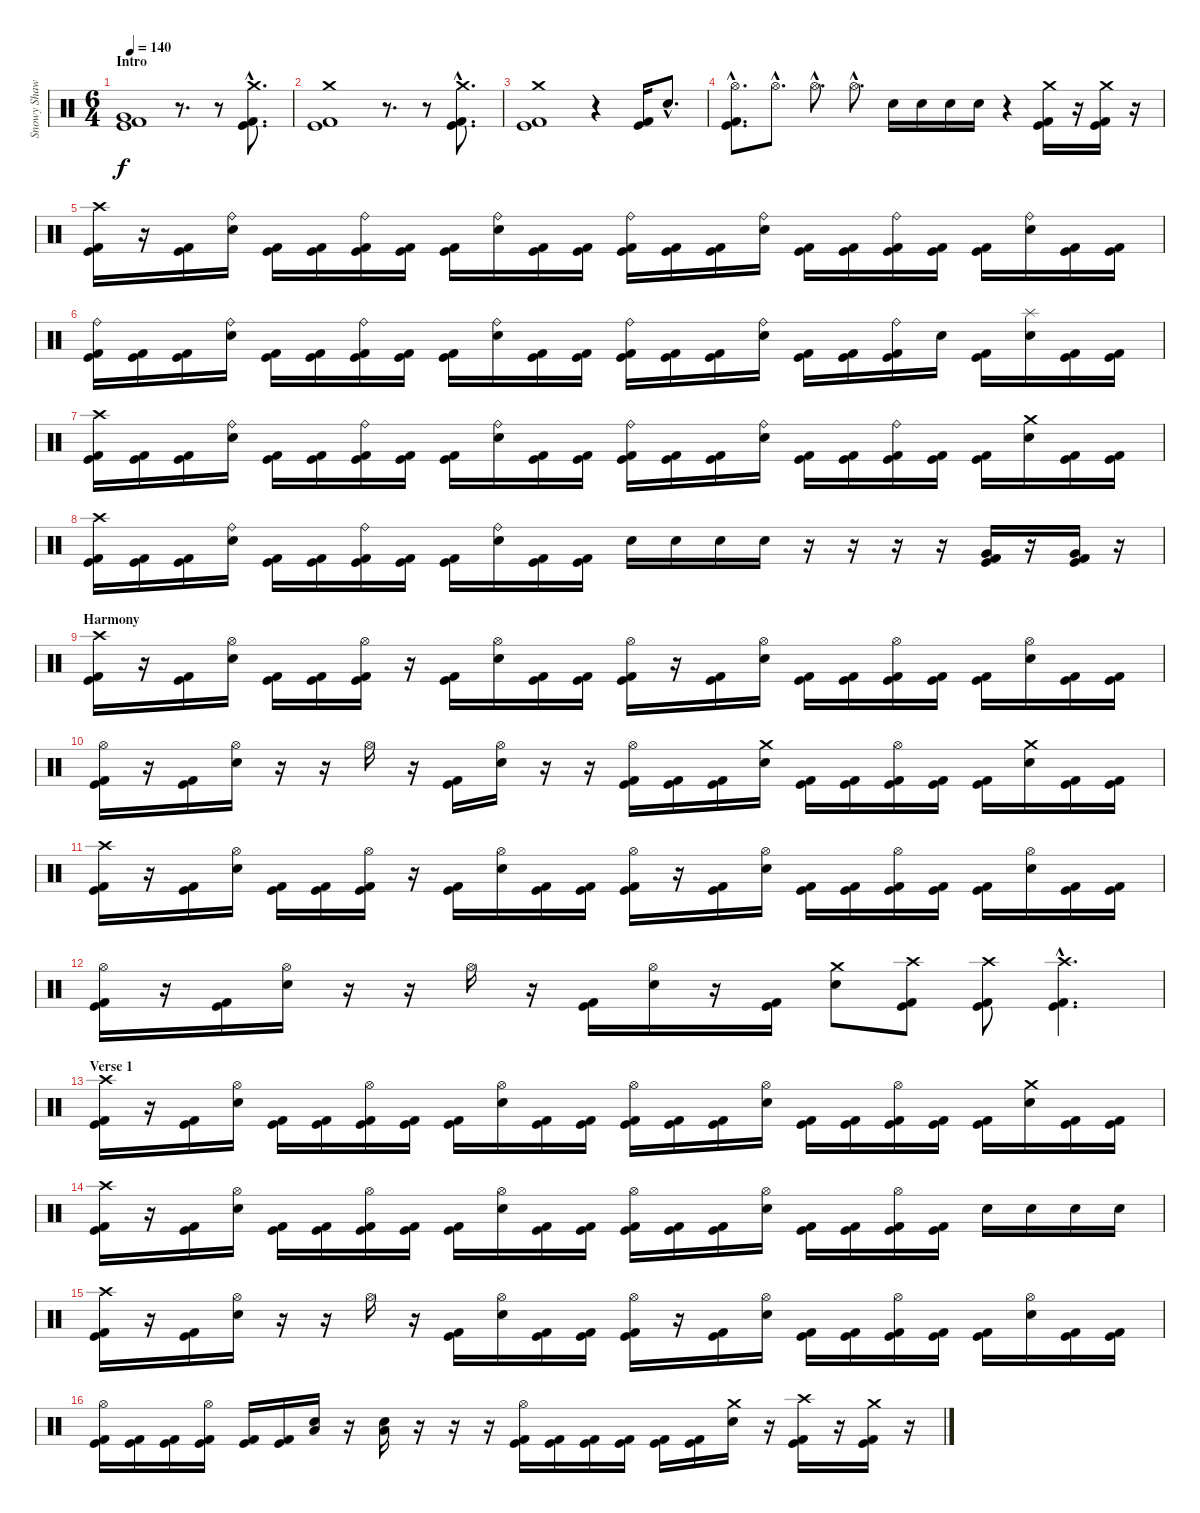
\track ("Snowy Shaw" "Snowy Shaw") {instrument percussion}
\staff {score}
\articulation defaults
\ts (6 4)
\section ("" "Intro")
\tempo 140
\clef neutral
\ks c
("Very Low Tom (hit)" "Kick (hit) 2" "Kick (hit)").1{dy f} r.8{d} r.8 ("Crash medium (hit)"{hac} "Kick (hit) 2"{hac} "Kick (hit)"{hac}).8{d} |
("Crash medium (hit)" "Kick (hit) 2" "Kick (hit)").1 r.8{d} r.8 ("Crash medium (hit)"{hac} "Kick (hit) 2"{hac} "Kick (hit)"{hac}).8{d} |
("Crash medium (hit)" "Kick (hit) 2" "Kick (hit)").1 r.4 ("Kick (hit) 2" "Kick (hit)").16 "Electric Snare (hit)"{hac}.8{d} |
("Hi-Hat (open)"{hac} "Kick (hit) 2"{hac} "Kick (hit)"{hac}).8{d} "Hi-Hat (open)"{hac}.8{d} "Hi-Hat (open)"{hac}.8{d} "Hi-Hat (open)"{hac}.8{d} "Electric Snare (hit)".16 "Electric Snare (hit)".16 "Electric Snare (hit)".16 "Electric Snare (hit)".16 r.4 ("Crash medium (hit)" "Kick (hit)" "Kick (hit) 2").16 r.16 ("Crash medium (hit)" "Kick (hit)" "Kick (hit) 2").16 r.16 |
("Crash high (hit)" "Kick (hit) 2" "Kick (hit)").16 r.16 ("Kick (hit) 2" "Kick (hit)").16 ("Ride (bell)" "Electric Snare (hit)").16 ("Kick (hit)" "Kick (hit) 2").16 ("Kick (hit)" "Kick (hit) 2").16 ("Ride (bell)" "Kick (hit)" "Kick (hit) 2").16 ("Kick (hit)" "Kick (hit) 2").16 ("Kick (hit)" "Kick (hit) 2").16 ("Ride (bell)" "Electric Snare (hit)").16 ("Kick (hit)" "Kick (hit) 2").16 ("Kick (hit)" "Kick (hit) 2").16 ("Ride (bell)" "Kick (hit)" "Kick (hit) 2").16 ("Kick (hit)" "Kick (hit) 2").16 ("Kick (hit)" "Kick (hit) 2").16 ("Ride (bell)" "Electric Snare (hit)").16 ("Kick (hit)" "Kick (hit) 2").16 ("Kick (hit)" "Kick (hit) 2").16 ("Ride (bell)" "Kick (hit)" "Kick (hit) 2").16 ("Kick (hit)" "Kick (hit) 2").16 ("Kick (hit)" "Kick (hit) 2").16 ("Ride (bell)" "Electric Snare (hit)").16 ("Kick (hit)" "Kick (hit) 2").16 ("Kick (hit)" "Kick (hit) 2").16 |
("Ride (bell)" "Kick (hit) 2" "Kick (hit)").16 ("Kick (hit) 2" "Kick (hit)").16 ("Kick (hit) 2" "Kick (hit)").16 ("Ride (bell)" "Electric Snare (hit)").16 ("Kick (hit)" "Kick (hit) 2").16 ("Kick (hit)" "Kick (hit) 2").16 ("Ride (bell)" "Kick (hit)" "Kick (hit) 2").16 ("Kick (hit)" "Kick (hit) 2").16 ("Kick (hit)" "Kick (hit) 2").16 ("Ride (bell)" "Electric Snare (hit)").16 ("Kick (hit)" "Kick (hit) 2").16 ("Kick (hit)" "Kick (hit) 2").16 ("Ride (bell)" "Kick (hit)" "Kick (hit) 2").16 ("Kick (hit)" "Kick (hit) 2").16 ("Kick (hit)" "Kick (hit) 2").16 ("Ride (bell)" "Electric Snare (hit)").16 ("Kick (hit)" "Kick (hit) 2").16 ("Kick (hit)" "Kick (hit) 2").16 ("Ride (bell)" "Kick (hit)" "Kick (hit) 2").16 "Electric Snare (hit)".16 ("Kick (hit)" "Kick (hit) 2").16 ("Splash (hit)" "Electric Snare (hit)").16 ("Kick (hit)" "Kick (hit) 2").16 ("Kick (hit)" "Kick (hit) 2").16 |
("Crash high (hit)" "Kick (hit) 2" "Kick (hit)").16 ("Kick (hit) 2" "Kick (hit)").16 ("Kick (hit) 2" "Kick (hit)").16 ("Ride (bell)" "Electric Snare (hit)").16 ("Kick (hit)" "Kick (hit) 2").16 ("Kick (hit)" "Kick (hit) 2").16 ("Ride (bell)" "Kick (hit)" "Kick (hit) 2").16 ("Kick (hit)" "Kick (hit) 2").16 ("Kick (hit)" "Kick (hit) 2").16 ("Ride (bell)" "Electric Snare (hit)").16 ("Kick (hit)" "Kick (hit) 2").16 ("Kick (hit)" "Kick (hit) 2").16 ("Ride (bell)" "Kick (hit)" "Kick (hit) 2").16 ("Kick (hit)" "Kick (hit) 2").16 ("Kick (hit)" "Kick (hit) 2").16 ("Ride (bell)" "Electric Snare (hit)").16 ("Kick (hit)" "Kick (hit) 2").16 ("Kick (hit)" "Kick (hit) 2").16 ("Ride (bell)" "Kick (hit)" "Kick (hit) 2").16 ("Kick (hit)" "Kick (hit) 2").16 ("Kick (hit)" "Kick (hit) 2").16 ("Crash medium (hit)" "Electric Snare (hit)").16 ("Kick (hit)" "Kick (hit) 2").16 ("Kick (hit)" "Kick (hit) 2").16 |
("Crash high (hit)" "Kick (hit) 2" "Kick (hit)").16 ("Kick (hit) 2" "Kick (hit)").16 ("Kick (hit) 2" "Kick (hit)").16 ("Ride (bell)" "Electric Snare (hit)").16 ("Kick (hit)" "Kick (hit) 2").16 ("Kick (hit)" "Kick (hit) 2").16 ("Ride (bell)" "Kick (hit)" "Kick (hit) 2").16 ("Kick (hit)" "Kick (hit) 2").16 ("Kick (hit)" "Kick (hit) 2").16 ("Ride (bell)" "Electric Snare (hit)").16 ("Kick (hit)" "Kick (hit) 2").16 ("Kick (hit)" "Kick (hit) 2").16 "Electric Snare (hit)".16 "Electric Snare (hit)".16 "Electric Snare (hit)".16 "Electric Snare (hit)".16 r.16 r.16 r.16 r.16 ("Very Low Tom (hit)" "Kick (hit)" "Kick (hit) 2").16 r.16 ("Very Low Tom (hit)" "Kick (hit)" "Kick (hit) 2").16 r.16 |
\section ("" "Harmony")
("Crash high (hit)" "Kick (hit) 2" "Kick (hit)").16 r.16 ("Kick (hit) 2" "Kick (hit)").16 ("Hi-Hat (open)" "Electric Snare (hit)").16 ("Kick (hit)" "Kick (hit) 2").16 ("Kick (hit)" "Kick (hit) 2").16 ("Hi-Hat (open)" "Kick (hit)" "Kick (hit) 2").16 r.16 ("Kick (hit)" "Kick (hit) 2").16 ("Hi-Hat (open)" "Electric Snare (hit)").16 ("Kick (hit)" "Kick (hit) 2").16 ("Kick (hit)" "Kick (hit) 2").16 ("Hi-Hat (open)" "Kick (hit)" "Kick (hit) 2").16 r.16 ("Kick (hit)" "Kick (hit) 2").16 ("Hi-Hat (open)" "Electric Snare (hit)").16 ("Kick (hit)" "Kick (hit) 2").16 ("Kick (hit)" "Kick (hit) 2").16 ("Hi-Hat (open)" "Kick (hit)" "Kick (hit) 2").16 ("Kick (hit)" "Kick (hit) 2").16 ("Kick (hit)" "Kick (hit) 2").16 ("Hi-Hat (open)" "Electric Snare (hit)").16 ("Kick (hit)" "Kick (hit) 2").16 ("Kick (hit)" "Kick (hit) 2").16 |
("Hi-Hat (open)" "Kick (hit) 2" "Kick (hit)").16 r.16 ("Kick (hit) 2" "Kick (hit)").16 ("Hi-Hat (open)" "Electric Snare (hit)").16 r.16 r.16 "Hi-Hat (open)".16 r.16 ("Kick (hit)" "Kick (hit) 2").16 ("Hi-Hat (open)" "Electric Snare (hit)").16 r.16 r.16 ("Hi-Hat (open)" "Kick (hit)" "Kick (hit) 2").16 ("Kick (hit) 2" "Kick (hit)").16 ("Kick (hit)" "Kick (hit) 2").16 ("Crash medium (hit)" "Electric Snare (hit)").16 ("Kick (hit)" "Kick (hit) 2").16 ("Kick (hit)" "Kick (hit) 2").16 ("Hi-Hat (open)" "Kick (hit)" "Kick (hit) 2").16 ("Kick (hit)" "Kick (hit) 2").16 ("Kick (hit)" "Kick (hit) 2").16 ("Crash medium (hit)" "Electric Snare (hit)").16 ("Kick (hit)" "Kick (hit) 2").16 ("Kick (hit)" "Kick (hit) 2").16 |
("Crash high (hit)" "Kick (hit) 2" "Kick (hit)").16 r.16 ("Kick (hit) 2" "Kick (hit)").16 ("Hi-Hat (open)" "Electric Snare (hit)").16 ("Kick (hit)" "Kick (hit) 2").16 ("Kick (hit)" "Kick (hit) 2").16 ("Hi-Hat (open)" "Kick (hit)" "Kick (hit) 2").16 r.16 ("Kick (hit)" "Kick (hit) 2").16 ("Hi-Hat (open)" "Electric Snare (hit)").16 ("Kick (hit)" "Kick (hit) 2").16 ("Kick (hit)" "Kick (hit) 2").16 ("Hi-Hat (open)" "Kick (hit)" "Kick (hit) 2").16 r.16 ("Kick (hit)" "Kick (hit) 2").16 ("Hi-Hat (open)" "Electric Snare (hit)").16 ("Kick (hit)" "Kick (hit) 2").16 ("Kick (hit)" "Kick (hit) 2").16 ("Hi-Hat (open)" "Kick (hit)" "Kick (hit) 2").16 ("Kick (hit)" "Kick (hit) 2").16 ("Kick (hit)" "Kick (hit) 2").16 ("Hi-Hat (open)" "Electric Snare (hit)").16 ("Kick (hit)" "Kick (hit) 2").16 ("Kick (hit)" "Kick (hit) 2").16 |
("Hi-Hat (open)" "Kick (hit) 2" "Kick (hit)").16 r.16 ("Kick (hit) 2" "Kick (hit)").16 ("Hi-Hat (open)" "Electric Snare (hit)").16 r.16 r.16 "Hi-Hat (open)".16 r.16 ("Kick (hit)" "Kick (hit) 2").16 ("Hi-Hat (open)" "Electric Snare (hit)").16 r.16 ("Kick (hit) 2" "Kick (hit)").16 ("Crash medium (hit)" "Electric Snare (hit)").8 ("Crash high (hit)" "Kick (hit) 2" "Kick (hit)").8 ("Crash high (hit)" "Kick (hit)" "Kick (hit) 2").8 ("Crash high (hit)"{hac} "Kick (hit)"{hac} "Kick (hit) 2"{hac}).4{d} |
\section ("" "Verse 1")
("Crash high (hit)" "Kick (hit) 2" "Kick (hit)").16 r.16 ("Kick (hit) 2" "Kick (hit)").16 ("Hi-Hat (open)" "Electric Snare (hit)").16 ("Kick (hit)" "Kick (hit) 2").16 ("Kick (hit)" "Kick (hit) 2").16 ("Hi-Hat (open)" "Kick (hit)" "Kick (hit) 2").16 ("Kick (hit) 2" "Kick (hit)").16 ("Kick (hit)" "Kick (hit) 2").16 ("Hi-Hat (open)" "Electric Snare (hit)").16 ("Kick (hit)" "Kick (hit) 2").16 ("Kick (hit)" "Kick (hit) 2").16 ("Hi-Hat (open)" "Kick (hit)" "Kick (hit) 2").16 ("Kick (hit) 2" "Kick (hit)").16 ("Kick (hit)" "Kick (hit) 2").16 ("Hi-Hat (open)" "Electric Snare (hit)").16 ("Kick (hit)" "Kick (hit) 2").16 ("Kick (hit)" "Kick (hit) 2").16 ("Hi-Hat (open)" "Kick (hit)" "Kick (hit) 2").16 ("Kick (hit)" "Kick (hit) 2").16 ("Kick (hit)" "Kick (hit) 2").16 ("Crash medium (hit)" "Electric Snare (hit)").16 ("Kick (hit)" "Kick (hit) 2").16 ("Kick (hit)" "Kick (hit) 2").16 |
("Crash high (hit)" "Kick (hit) 2" "Kick (hit)").16 r.16 ("Kick (hit) 2" "Kick (hit)").16 ("Hi-Hat (open)" "Electric Snare (hit)").16 ("Kick (hit)" "Kick (hit) 2").16 ("Kick (hit)" "Kick (hit) 2").16 ("Hi-Hat (open)" "Kick (hit)" "Kick (hit) 2").16 ("Kick (hit) 2" "Kick (hit)").16 ("Kick (hit)" "Kick (hit) 2").16 ("Hi-Hat (open)" "Electric Snare (hit)").16 ("Kick (hit)" "Kick (hit) 2").16 ("Kick (hit)" "Kick (hit) 2").16 ("Hi-Hat (open)" "Kick (hit)" "Kick (hit) 2").16 ("Kick (hit) 2" "Kick (hit)").16 ("Kick (hit)" "Kick (hit) 2").16 ("Hi-Hat (open)" "Electric Snare (hit)").16 ("Kick (hit)" "Kick (hit) 2").16 ("Kick (hit)" "Kick (hit) 2").16 ("Hi-Hat (open)" "Kick (hit)" "Kick (hit) 2").16 ("Kick (hit) 2" "Kick (hit)").16 "Electric Snare (hit)".16 "Electric Snare (hit)".16 "Electric Snare (hit)".16 "Electric Snare (hit)".16 |
("Crash high (hit)" "Kick (hit) 2" "Kick (hit)").16 r.16 ("Kick (hit) 2" "Kick (hit)").16 ("Hi-Hat (open)" "Electric Snare (hit)").16 r.16 r.16 "Hi-Hat (open)".16 r.16 ("Kick (hit)" "Kick (hit) 2").16 ("Hi-Hat (open)" "Electric Snare (hit)").16 ("Kick (hit)" "Kick (hit) 2").16 ("Kick (hit)" "Kick (hit) 2").16 ("Hi-Hat (open)" "Kick (hit)" "Kick (hit) 2").16 r.16 ("Kick (hit)" "Kick (hit) 2").16 ("Hi-Hat (open)" "Electric Snare (hit)").16 ("Kick (hit)" "Kick (hit) 2").16 ("Kick (hit)" "Kick (hit) 2").16 ("Hi-Hat (open)" "Kick (hit)" "Kick (hit) 2").16 ("Kick (hit)" "Kick (hit) 2").16 ("Kick (hit)" "Kick (hit) 2").16 ("Hi-Hat (open)" "Electric Snare (hit)").16 ("Kick (hit)" "Kick (hit) 2").16 ("Kick (hit)" "Kick (hit) 2").16 |
("Hi-Hat (open)" "Kick (hit)" "Kick (hit) 2").16 ("Kick (hit)" "Kick (hit) 2").16 ("Kick (hit)" "Kick (hit) 2").16 ("Hi-Hat (open)" "Kick (hit)" "Kick (hit) 2").16 ("Kick (hit)" "Kick (hit) 2").16 ("Kick (hit)" "Kick (hit) 2").16 ("Low Tom (hit)" "Electric Snare (hit)").16 r.16 ("Low Tom (hit)" "Electric Snare (hit)").16 r.16 r.16 r.16 ("Hi-Hat (open)" "Kick (hit)" "Kick (hit) 2").16 ("Kick (hit)" "Kick (hit) 2").16 ("Kick (hit)" "Kick (hit) 2").16 ("Kick (hit)" "Kick (hit) 2").16 ("Kick (hit)" "Kick (hit) 2").16 ("Kick (hit)" "Kick (hit) 2").16 ("Crash medium (hit)" "Electric Snare (hit)").16 r.16 ("Crash high (hit)" "Kick (hit) 2" "Kick (hit)").16 r.16 ("Crash medium (hit)" "Kick (hit) 2" "Kick (hit)").16 r.16
